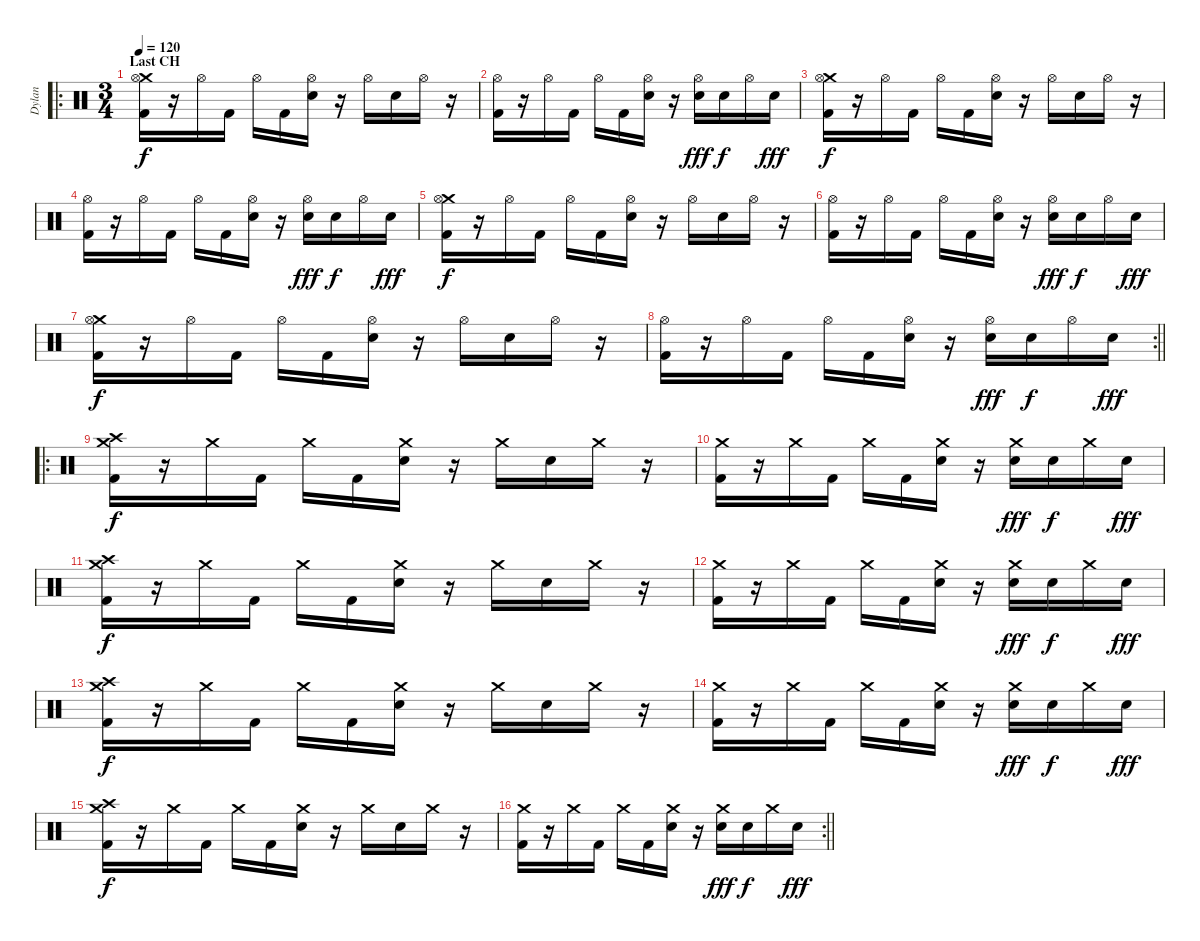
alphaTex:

\track ("Dylan" "Dylan") {instrument percussion}
\staff {score}
\articulation defaults
\ro
\ts (3 4)
\section ("" "Last CH")
\tempo 120
\clef neutral
\ks c
("Crash medium (hit)" "Hi-Hat (open)" "Kick (hit) 2").16{dy f} r.16 "Hi-Hat (open)".16 "Kick (hit) 2".16 "Hi-Hat (open)".16 "Kick (hit) 2".16 ("Hi-Hat (open)" "Electric Snare (hit)").16 r.16 "Hi-Hat (open)".16 "Electric Snare (hit)".16 "Hi-Hat (open)".16 r.16 |
("Hi-Hat (open)" "Kick (hit) 2").16 r.16 "Hi-Hat (open)".16 "Kick (hit) 2".16 "Hi-Hat (open)".16 "Kick (hit) 2".16 ("Hi-Hat (open)" "Electric Snare (hit)").16 r.16 ("Hi-Hat (open)" "Electric Snare (hit)").16{dy fff} "Electric Snare (hit)".16{dy f} "Hi-Hat (open)".16 "Electric Snare (hit)".16{dy fff} |
("Crash medium (hit)" "Hi-Hat (open)" "Kick (hit) 2").16{dy f} r.16 "Hi-Hat (open)".16 "Kick (hit) 2".16 "Hi-Hat (open)".16 "Kick (hit) 2".16 ("Hi-Hat (open)" "Electric Snare (hit)").16 r.16 "Hi-Hat (open)".16 "Electric Snare (hit)".16 "Hi-Hat (open)".16 r.16 |
("Hi-Hat (open)" "Kick (hit) 2").16 r.16 "Hi-Hat (open)".16 "Kick (hit) 2".16 "Hi-Hat (open)".16 "Kick (hit) 2".16 ("Hi-Hat (open)" "Electric Snare (hit)").16 r.16 ("Hi-Hat (open)" "Electric Snare (hit)").16{dy fff} "Electric Snare (hit)".16{dy f} "Hi-Hat (open)".16 "Electric Snare (hit)".16{dy fff} |
("Crash medium (hit)" "Hi-Hat (open)" "Kick (hit) 2").16{dy f} r.16 "Hi-Hat (open)".16 "Kick (hit) 2".16 "Hi-Hat (open)".16 "Kick (hit) 2".16 ("Hi-Hat (open)" "Electric Snare (hit)").16 r.16 "Hi-Hat (open)".16 "Electric Snare (hit)".16 "Hi-Hat (open)".16 r.16 |
("Hi-Hat (open)" "Kick (hit) 2").16 r.16 "Hi-Hat (open)".16 "Kick (hit) 2".16 "Hi-Hat (open)".16 "Kick (hit) 2".16 ("Hi-Hat (open)" "Electric Snare (hit)").16 r.16 ("Hi-Hat (open)" "Electric Snare (hit)").16{dy fff} "Electric Snare (hit)".16{dy f} "Hi-Hat (open)".16 "Electric Snare (hit)".16{dy fff} |
("Crash medium (hit)" "Hi-Hat (open)" "Kick (hit) 2").16{dy f} r.16 "Hi-Hat (open)".16 "Kick (hit) 2".16 "Hi-Hat (open)".16 "Kick (hit) 2".16 ("Hi-Hat (open)" "Electric Snare (hit)").16 r.16 "Hi-Hat (open)".16 "Electric Snare (hit)".16 "Hi-Hat (open)".16 r.16 |
\rc 2
\barLineRight lightlight
("Hi-Hat (open)" "Kick (hit) 2").16 r.16 "Hi-Hat (open)".16 "Kick (hit) 2".16 "Hi-Hat (open)".16 "Kick (hit) 2".16 ("Hi-Hat (open)" "Electric Snare (hit)").16 r.16 ("Hi-Hat (open)" "Electric Snare (hit)").16{dy fff} "Electric Snare (hit)".16{dy f} "Hi-Hat (open)".16 "Electric Snare (hit)".16{dy fff} |
\ro
("Crash high (hit)" "Crash medium (hit)" "Kick (hit) 2").16{dy f} r.16 "Crash medium (hit)".16 "Kick (hit) 2".16 "Crash medium (hit)".16 "Kick (hit) 2".16 ("Crash medium (hit)" "Electric Snare (hit)").16 r.16 "Crash medium (hit)".16 "Electric Snare (hit)".16 "Crash medium (hit)".16 r.16 |
("Crash medium (hit)" "Kick (hit) 2").16 r.16 "Crash medium (hit)".16 "Kick (hit) 2".16 "Crash medium (hit)".16 "Kick (hit) 2".16 ("Crash medium (hit)" "Electric Snare (hit)").16 r.16 ("Crash medium (hit)" "Electric Snare (hit)").16{dy fff} "Electric Snare (hit)".16{dy f} "Crash medium (hit)".16 "Electric Snare (hit)".16{dy fff} |
("Crash high (hit)" "Crash medium (hit)" "Kick (hit) 2").16{dy f} r.16 "Crash medium (hit)".16 "Kick (hit) 2".16 "Crash medium (hit)".16 "Kick (hit) 2".16 ("Crash medium (hit)" "Electric Snare (hit)").16 r.16 "Crash medium (hit)".16 "Electric Snare (hit)".16 "Crash medium (hit)".16 r.16 |
("Crash medium (hit)" "Kick (hit) 2").16 r.16 "Crash medium (hit)".16 "Kick (hit) 2".16 "Crash medium (hit)".16 "Kick (hit) 2".16 ("Crash medium (hit)" "Electric Snare (hit)").16 r.16 ("Crash medium (hit)" "Electric Snare (hit)").16{dy fff} "Electric Snare (hit)".16{dy f} "Crash medium (hit)".16 "Electric Snare (hit)".16{dy fff} |
("Crash high (hit)" "Crash medium (hit)" "Kick (hit) 2").16{dy f} r.16 "Crash medium (hit)".16 "Kick (hit) 2".16 "Crash medium (hit)".16 "Kick (hit) 2".16 ("Crash medium (hit)" "Electric Snare (hit)").16 r.16 "Crash medium (hit)".16 "Electric Snare (hit)".16 "Crash medium (hit)".16 r.16 |
("Crash medium (hit)" "Kick (hit) 2").16 r.16 "Crash medium (hit)".16 "Kick (hit) 2".16 "Crash medium (hit)".16 "Kick (hit) 2".16 ("Crash medium (hit)" "Electric Snare (hit)").16 r.16 ("Crash medium (hit)" "Electric Snare (hit)").16{dy fff} "Electric Snare (hit)".16{dy f} "Crash medium (hit)".16 "Electric Snare (hit)".16{dy fff} |
("Crash high (hit)" "Crash medium (hit)" "Kick (hit) 2").16{dy f} r.16 "Crash medium (hit)".16 "Kick (hit) 2".16 "Crash medium (hit)".16 "Kick (hit) 2".16 ("Crash medium (hit)" "Electric Snare (hit)").16 r.16 "Crash medium (hit)".16 "Electric Snare (hit)".16 "Crash medium (hit)".16 r.16 |
\rc 2
\barLineRight lightlight
("Crash medium (hit)" "Kick (hit) 2").16 r.16 "Crash medium (hit)".16 "Kick (hit) 2".16 "Crash medium (hit)".16 "Kick (hit) 2".16 ("Crash medium (hit)" "Electric Snare (hit)").16 r.16 ("Crash medium (hit)" "Electric Snare (hit)").16{dy fff} "Electric Snare (hit)".16{dy f} "Crash medium (hit)".16 "Electric Snare (hit)".16{dy fff}
